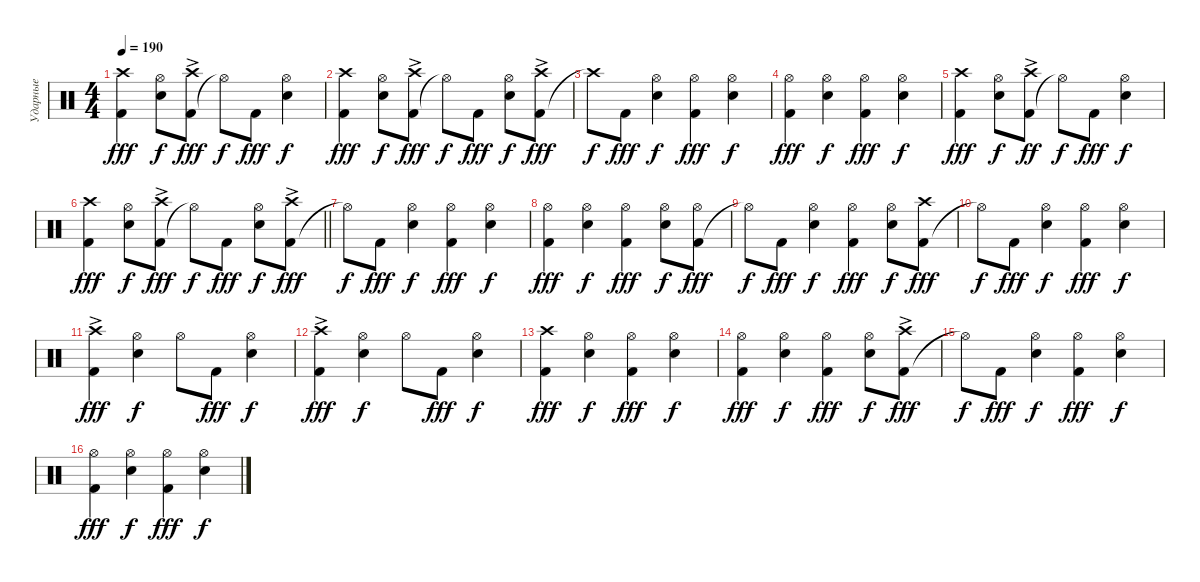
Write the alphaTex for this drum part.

\track ("Ударные" "Ударные") {instrument percussion}
\staff {score}
\articulation defaults
\ts (4 4)
\tempo 190
\clef neutral
\ks c
("Kick (hit) 2" "Crash high (hit)").4{dy fff} ("Snare (hit) 2" "Hi-Hat (open)").8{dy f} ("Kick (hit) 2" "Crash high (hit)"{ac}).8{dy fff} "Hi-Hat (open)"{t}.8{dy f} "Kick (hit) 2".8{dy fff} ("Snare (hit) 2" "Hi-Hat (open)").4{dy f} |
("Kick (hit) 2" "Crash high (hit)").4{dy fff} ("Snare (hit) 2" "Hi-Hat (open)").8{dy f} ("Kick (hit) 2" "Crash high (hit)"{ac}).8{dy fff} "Hi-Hat (open)"{t}.8{dy f} "Kick (hit) 2".8{dy fff} ("Snare (hit) 2" "Hi-Hat (open)").8{dy f} ("Kick (hit) 2" "Crash high (hit)"{ac}).8{dy fff} |
"Crash high (hit)"{t}.8{dy f} "Kick (hit) 2".8{dy fff} ("Snare (hit) 2" "Hi-Hat (open)").4{dy f} ("Kick (hit) 2" "Hi-Hat (open)").4{dy fff} ("Snare (hit) 2" "Hi-Hat (open)").4{dy f} |
("Kick (hit) 2" "Hi-Hat (open)").4{dy fff} ("Snare (hit) 2" "Hi-Hat (open)").4{dy f} ("Kick (hit) 2" "Hi-Hat (open)").4{dy fff} ("Snare (hit) 2" "Hi-Hat (open)").4{dy f} |
("Kick (hit) 2" "Crash high (hit)").4{dy fff} ("Snare (hit) 2" "Hi-Hat (open)").8{dy f} ("Kick (hit) 2" "Crash high (hit)"{ac}).8{dy ff} "Hi-Hat (open)"{t}.8{dy f} "Kick (hit) 2".8{dy fff} ("Snare (hit) 2" "Hi-Hat (open)").4{dy f} |
\barLineRight lightlight
("Kick (hit) 2" "Crash high (hit)").4{dy fff} ("Snare (hit) 2" "Hi-Hat (open)").8{dy f} ("Kick (hit) 2" "Crash high (hit)"{ac}).8{dy fff} "Hi-Hat (open)"{t}.8{dy f} "Kick (hit) 2".8{dy fff} ("Snare (hit) 2" "Hi-Hat (open)").8{dy f} ("Kick (hit) 2" "Crash high (hit)"{ac}).8{dy fff} |
"Hi-Hat (open)"{t}.8{dy f} "Kick (hit) 2".8{dy fff} ("Snare (hit) 2" "Hi-Hat (open)").4{dy f} ("Kick (hit) 2" "Hi-Hat (open)").4{dy fff} ("Snare (hit) 2" "Hi-Hat (open)").4{dy f} |
("Kick (hit) 2" "Hi-Hat (open)").4{dy fff} ("Snare (hit) 2" "Hi-Hat (open)").4{dy f} ("Kick (hit) 2" "Hi-Hat (open)").4{dy fff} ("Snare (hit) 2" "Hi-Hat (open)").8{dy f} ("Kick (hit) 2" "Hi-Hat (open)").8{dy fff} |
"Hi-Hat (open)"{t}.8{dy f} "Kick (hit) 2".8{dy fff} ("Snare (hit) 2" "Hi-Hat (open)").4{dy f} ("Kick (hit) 2" "Hi-Hat (open)").4{dy fff} ("Snare (hit) 2" "Hi-Hat (open)").8{dy f} ("Kick (hit) 2" "Crash high (hit)").8{dy fff} |
"Hi-Hat (open)"{t}.8{dy f} "Kick (hit) 2".8{dy fff} ("Snare (hit) 2" "Hi-Hat (open)").4{dy f} ("Kick (hit) 2" "Hi-Hat (open)").4{dy fff} ("Snare (hit) 2" "Hi-Hat (open)").4{dy f} |
("Kick (hit) 2" "Crash high (hit)"{ac}).4{dy fff} ("Snare (hit) 2" "Hi-Hat (open)").4{dy f} "Hi-Hat (open)".8 "Kick (hit) 2".8{dy fff} ("Snare (hit) 2" "Hi-Hat (open)").4{dy f} |
("Kick (hit) 2" "Crash high (hit)"{ac}).4{dy fff} ("Snare (hit) 2" "Hi-Hat (open)").4{dy f} "Hi-Hat (open)".8 "Kick (hit) 2".8{dy fff} ("Snare (hit) 2" "Hi-Hat (open)").4{dy f} |
("Kick (hit) 2" "Crash high (hit)").4{dy fff} ("Snare (hit) 2" "Hi-Hat (open)").4{dy f} ("Kick (hit) 2" "Hi-Hat (open)").4{dy fff} ("Snare (hit) 2" "Hi-Hat (open)").4{dy f} |
("Kick (hit) 2" "Hi-Hat (open)").4{dy fff} ("Snare (hit) 2" "Hi-Hat (open)").4{dy f} ("Kick (hit) 2" "Hi-Hat (open)").4{dy fff} ("Snare (hit) 2" "Hi-Hat (open)").8{dy f} ("Kick (hit) 2" "Crash high (hit)"{ac}).8{dy fff} |
"Hi-Hat (open)"{t}.8{dy f} "Kick (hit) 2".8{dy fff} ("Snare (hit) 2" "Hi-Hat (open)").4{dy f} ("Kick (hit) 2" "Hi-Hat (open)").4{dy fff} ("Snare (hit) 2" "Hi-Hat (open)").4{dy f} |
("Kick (hit) 2" "Hi-Hat (open)").4{dy fff} ("Snare (hit) 2" "Hi-Hat (open)").4{dy f} ("Kick (hit) 2" "Hi-Hat (open)").4{dy fff} ("Snare (hit) 2" "Hi-Hat (open)").4{dy f}
